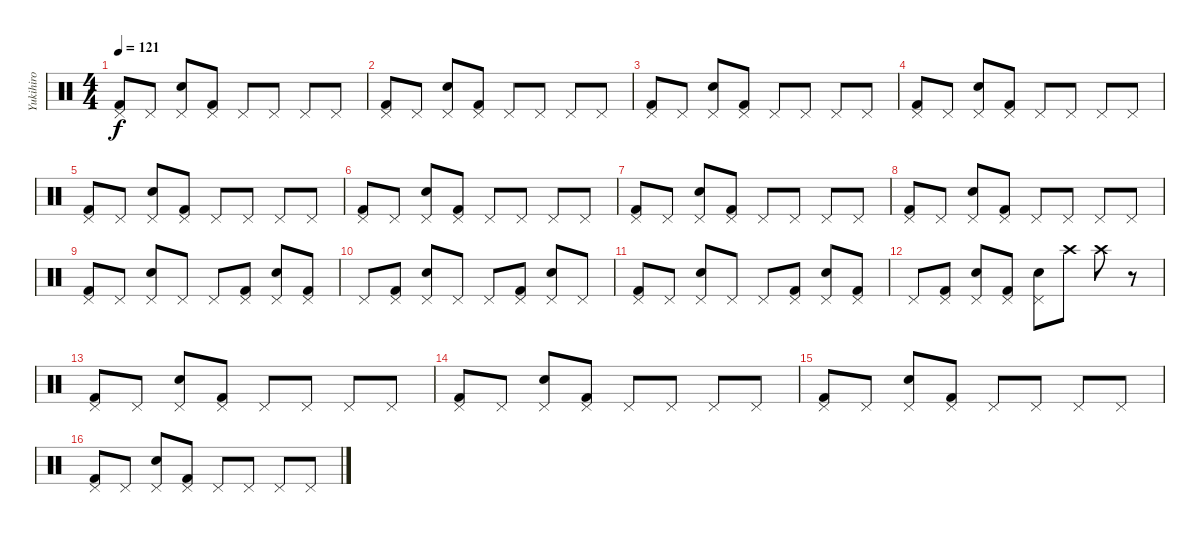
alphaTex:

\track ("Yukihiro" "Yukihiro") {instrument percussion}
\staff {score}
\articulation defaults
\ts (4 4)
\tempo 121
\clef neutral
\ks c
("Pedal Hi-Hat (hit)" "Kick (hit) 2").8{dy f} "Pedal Hi-Hat (hit)".8 ("Pedal Hi-Hat (hit)" "Electric Snare (hit)").8 ("Pedal Hi-Hat (hit)" "Kick (hit) 2").8 "Pedal Hi-Hat (hit)".8 "Pedal Hi-Hat (hit)".8 "Pedal Hi-Hat (hit)".8 "Pedal Hi-Hat (hit)".8 |
("Pedal Hi-Hat (hit)" "Kick (hit) 2").8 "Pedal Hi-Hat (hit)".8 ("Pedal Hi-Hat (hit)" "Electric Snare (hit)").8 ("Pedal Hi-Hat (hit)" "Kick (hit) 2").8 "Pedal Hi-Hat (hit)".8 "Pedal Hi-Hat (hit)".8 "Pedal Hi-Hat (hit)".8 "Pedal Hi-Hat (hit)".8 |
("Pedal Hi-Hat (hit)" "Kick (hit) 2").8 "Pedal Hi-Hat (hit)".8 ("Pedal Hi-Hat (hit)" "Electric Snare (hit)").8 ("Pedal Hi-Hat (hit)" "Kick (hit) 2").8 "Pedal Hi-Hat (hit)".8 "Pedal Hi-Hat (hit)".8 "Pedal Hi-Hat (hit)".8 "Pedal Hi-Hat (hit)".8 |
("Pedal Hi-Hat (hit)" "Kick (hit) 2").8 "Pedal Hi-Hat (hit)".8 ("Pedal Hi-Hat (hit)" "Electric Snare (hit)").8 ("Pedal Hi-Hat (hit)" "Kick (hit) 2").8 "Pedal Hi-Hat (hit)".8 "Pedal Hi-Hat (hit)".8 "Pedal Hi-Hat (hit)".8 "Pedal Hi-Hat (hit)".8 |
("Pedal Hi-Hat (hit)" "Kick (hit) 2").8 "Pedal Hi-Hat (hit)".8 ("Pedal Hi-Hat (hit)" "Electric Snare (hit)").8 ("Pedal Hi-Hat (hit)" "Kick (hit) 2").8 "Pedal Hi-Hat (hit)".8 "Pedal Hi-Hat (hit)".8 "Pedal Hi-Hat (hit)".8 "Pedal Hi-Hat (hit)".8 |
("Pedal Hi-Hat (hit)" "Kick (hit) 2").8 "Pedal Hi-Hat (hit)".8 ("Pedal Hi-Hat (hit)" "Electric Snare (hit)").8 ("Pedal Hi-Hat (hit)" "Kick (hit) 2").8 "Pedal Hi-Hat (hit)".8 "Pedal Hi-Hat (hit)".8 "Pedal Hi-Hat (hit)".8 "Pedal Hi-Hat (hit)".8 |
("Pedal Hi-Hat (hit)" "Kick (hit) 2").8 "Pedal Hi-Hat (hit)".8 ("Pedal Hi-Hat (hit)" "Electric Snare (hit)").8 ("Pedal Hi-Hat (hit)" "Kick (hit) 2").8 "Pedal Hi-Hat (hit)".8 "Pedal Hi-Hat (hit)".8 "Pedal Hi-Hat (hit)".8 "Pedal Hi-Hat (hit)".8 |
("Pedal Hi-Hat (hit)" "Kick (hit) 2").8 "Pedal Hi-Hat (hit)".8 ("Pedal Hi-Hat (hit)" "Electric Snare (hit)").8 ("Pedal Hi-Hat (hit)" "Kick (hit) 2").8 "Pedal Hi-Hat (hit)".8 "Pedal Hi-Hat (hit)".8 "Pedal Hi-Hat (hit)".8 "Pedal Hi-Hat (hit)".8 |
("Pedal Hi-Hat (hit)" "Kick (hit) 2").8 "Pedal Hi-Hat (hit)".8 ("Pedal Hi-Hat (hit)" "Electric Snare (hit)").8 "Pedal Hi-Hat (hit)".8 "Pedal Hi-Hat (hit)".8 ("Pedal Hi-Hat (hit)" "Kick (hit) 2").8 ("Pedal Hi-Hat (hit)" "Electric Snare (hit)").8 ("Pedal Hi-Hat (hit)" "Kick (hit) 2").8 |
"Pedal Hi-Hat (hit)".8 ("Pedal Hi-Hat (hit)" "Kick (hit) 2").8 ("Pedal Hi-Hat (hit)" "Electric Snare (hit)").8 "Pedal Hi-Hat (hit)".8 "Pedal Hi-Hat (hit)".8 ("Pedal Hi-Hat (hit)" "Kick (hit) 2").8 ("Pedal Hi-Hat (hit)" "Electric Snare (hit)").8 "Pedal Hi-Hat (hit)".8 |
("Pedal Hi-Hat (hit)" "Kick (hit) 2").8 "Pedal Hi-Hat (hit)".8 ("Pedal Hi-Hat (hit)" "Electric Snare (hit)").8 "Pedal Hi-Hat (hit)".8 "Pedal Hi-Hat (hit)".8 ("Pedal Hi-Hat (hit)" "Kick (hit) 2").8 ("Pedal Hi-Hat (hit)" "Electric Snare (hit)").8 ("Pedal Hi-Hat (hit)" "Kick (hit) 2").8 |
"Pedal Hi-Hat (hit)".8 ("Pedal Hi-Hat (hit)" "Kick (hit) 2").8 ("Pedal Hi-Hat (hit)" "Electric Snare (hit)").8 ("Pedal Hi-Hat (hit)" "Kick (hit) 2").8 ("Pedal Hi-Hat (hit)" "Electric Snare (hit)").8 "Crash high (hit)".8 "Crash high (hit)".8 r.8 |
("Pedal Hi-Hat (hit)" "Kick (hit) 2").8 "Pedal Hi-Hat (hit)".8 ("Pedal Hi-Hat (hit)" "Electric Snare (hit)").8 ("Pedal Hi-Hat (hit)" "Kick (hit) 2").8 "Pedal Hi-Hat (hit)".8 "Pedal Hi-Hat (hit)".8 "Pedal Hi-Hat (hit)".8 "Pedal Hi-Hat (hit)".8 |
("Pedal Hi-Hat (hit)" "Kick (hit) 2").8 "Pedal Hi-Hat (hit)".8 ("Pedal Hi-Hat (hit)" "Electric Snare (hit)").8 ("Pedal Hi-Hat (hit)" "Kick (hit) 2").8 "Pedal Hi-Hat (hit)".8 "Pedal Hi-Hat (hit)".8 "Pedal Hi-Hat (hit)".8 "Pedal Hi-Hat (hit)".8 |
("Pedal Hi-Hat (hit)" "Kick (hit) 2").8 "Pedal Hi-Hat (hit)".8 ("Pedal Hi-Hat (hit)" "Electric Snare (hit)").8 ("Pedal Hi-Hat (hit)" "Kick (hit) 2").8 "Pedal Hi-Hat (hit)".8 "Pedal Hi-Hat (hit)".8 "Pedal Hi-Hat (hit)".8 "Pedal Hi-Hat (hit)".8 |
("Pedal Hi-Hat (hit)" "Kick (hit) 2").8 "Pedal Hi-Hat (hit)".8 ("Pedal Hi-Hat (hit)" "Electric Snare (hit)").8 ("Pedal Hi-Hat (hit)" "Kick (hit) 2").8 "Pedal Hi-Hat (hit)".8 "Pedal Hi-Hat (hit)".8 "Pedal Hi-Hat (hit)".8 "Pedal Hi-Hat (hit)".8
